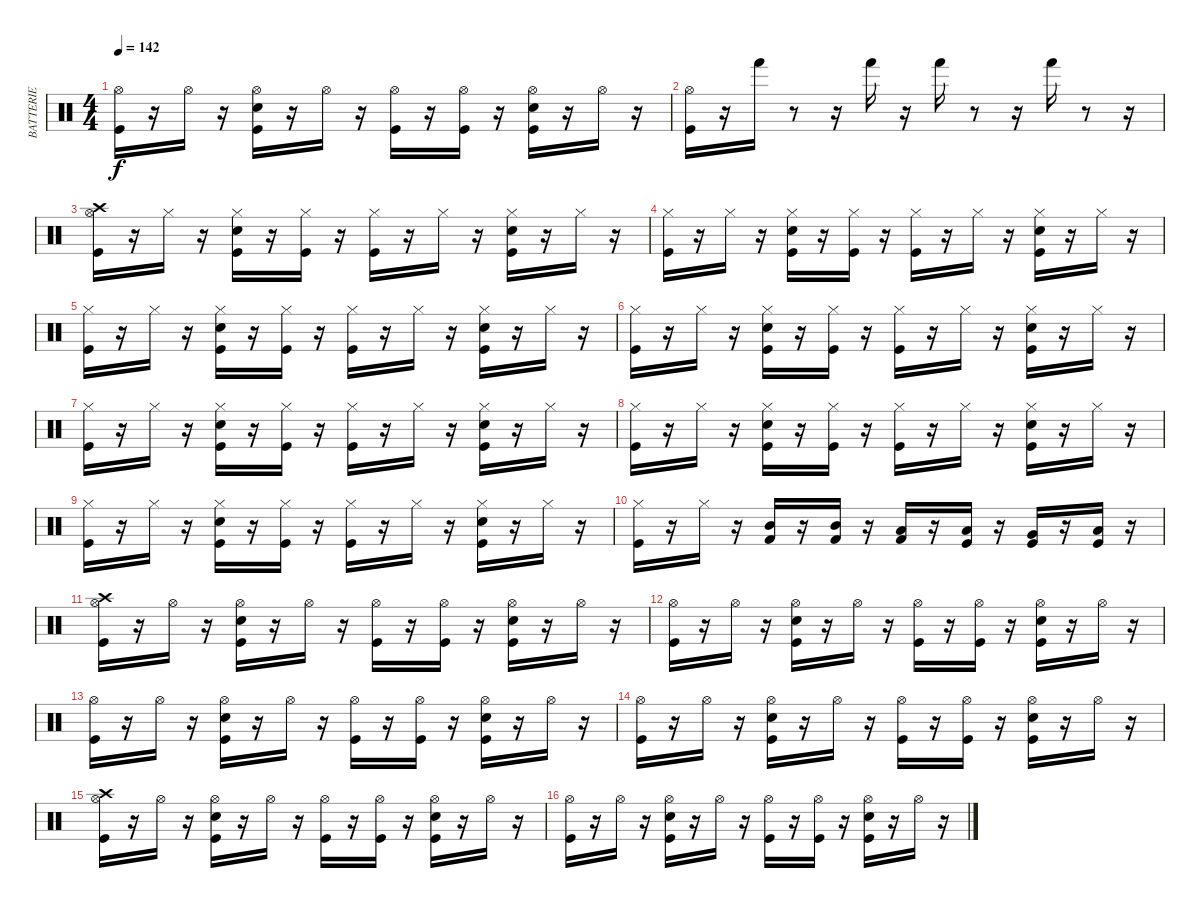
\track ("BATTERIE" "BATTERIE") {instrument percussion}
\staff {score}
\articulation defaults
\ts (4 4)
\tempo 142
\clef neutral
\ks c
("Kick (hit)" "Hi-Hat (open)").16{dy f} r.16 "Hi-Hat (open)".16 r.16 ("Snare (hit) 2" "Kick (hit)" "Hi-Hat (open)").16 r.16 "Hi-Hat (open)".16 r.16 ("Kick (hit)" "Hi-Hat (open)").16 r.16 ("Kick (hit)" "Hi-Hat (open)").16 r.16 ("Kick (hit)" "Snare (hit) 2" "Hi-Hat (open)").16 r.16 "Hi-Hat (open)".16 r.16 |
("Kick (hit)" "Hi-Hat (open)").16 r.16 "Hand (hit)".16 r.8 r.16 "Hand (hit)".16 r.16 "Hand (hit)".16 r.8 r.16 "Hand (hit)".16 r.8 r.16 |
("Crash high (hit)" "Hi-Hat (open)" "Kick (hit)").16 r.16 "Hi-Hat (closed)".16 r.16 ("Snare (hit) 2" "Kick (hit)" "Hi-Hat (closed)").16 r.16 ("Kick (hit)" "Hi-Hat (closed)").16 r.16 ("Kick (hit)" "Hi-Hat (closed)").16 r.16 "Hi-Hat (closed)".16 r.16 ("Snare (hit) 2" "Kick (hit)" "Hi-Hat (closed)").16 r.16 "Hi-Hat (closed)".16 r.16 |
("Kick (hit)" "Hi-Hat (closed)").16 r.16 "Hi-Hat (closed)".16 r.16 ("Snare (hit) 2" "Kick (hit)" "Hi-Hat (closed)").16 r.16 ("Kick (hit)" "Hi-Hat (closed)").16 r.16 ("Kick (hit)" "Hi-Hat (closed)").16 r.16 "Hi-Hat (closed)".16 r.16 ("Snare (hit) 2" "Kick (hit)" "Hi-Hat (closed)").16 r.16 "Hi-Hat (closed)".16 r.16 |
("Hi-Hat (closed)" "Kick (hit)").16 r.16 "Hi-Hat (closed)".16 r.16 ("Snare (hit) 2" "Kick (hit)" "Hi-Hat (closed)").16 r.16 ("Kick (hit)" "Hi-Hat (closed)").16 r.16 ("Kick (hit)" "Hi-Hat (closed)").16 r.16 "Hi-Hat (closed)".16 r.16 ("Snare (hit) 2" "Kick (hit)" "Hi-Hat (closed)").16 r.16 "Hi-Hat (closed)".16 r.16 |
("Hi-Hat (closed)" "Kick (hit)").16 r.16 "Hi-Hat (closed)".16 r.16 ("Snare (hit) 2" "Kick (hit)" "Hi-Hat (closed)").16 r.16 ("Kick (hit)" "Hi-Hat (closed)").16 r.16 ("Kick (hit)" "Hi-Hat (closed)").16 r.16 "Hi-Hat (closed)".16 r.16 ("Snare (hit) 2" "Kick (hit)" "Hi-Hat (closed)").16 r.16 "Hi-Hat (closed)".16 r.16 |
("Hi-Hat (closed)" "Kick (hit)").16 r.16 "Hi-Hat (closed)".16 r.16 ("Snare (hit) 2" "Kick (hit)" "Hi-Hat (closed)").16 r.16 ("Kick (hit)" "Hi-Hat (closed)").16 r.16 ("Kick (hit)" "Hi-Hat (closed)").16 r.16 "Hi-Hat (closed)".16 r.16 ("Snare (hit) 2" "Kick (hit)" "Hi-Hat (closed)").16 r.16 "Hi-Hat (closed)".16 r.16 |
("Hi-Hat (closed)" "Kick (hit)").16 r.16 "Hi-Hat (closed)".16 r.16 ("Snare (hit) 2" "Kick (hit)" "Hi-Hat (closed)").16 r.16 ("Kick (hit)" "Hi-Hat (closed)").16 r.16 ("Kick (hit)" "Hi-Hat (closed)").16 r.16 "Hi-Hat (closed)".16 r.16 ("Snare (hit) 2" "Kick (hit)" "Hi-Hat (closed)").16 r.16 "Hi-Hat (closed)".16 r.16 |
("Hi-Hat (closed)" "Kick (hit)").16 r.16 "Hi-Hat (closed)".16 r.16 ("Snare (hit) 2" "Kick (hit)" "Hi-Hat (closed)").16 r.16 ("Kick (hit)" "Hi-Hat (closed)").16 r.16 ("Kick (hit)" "Hi-Hat (closed)").16 r.16 "Hi-Hat (closed)".16 r.16 ("Snare (hit) 2" "Kick (hit)" "Hi-Hat (closed)").16 r.16 "Hi-Hat (closed)".16 r.16 |
("Hi-Hat (closed)" "Kick (hit)").16 r.16 "Hi-Hat (closed)".16 r.16 ("Kick (hit) 2" "Mid Tom (hit)").16 r.16 ("Kick (hit) 2" "Mid Tom (hit)").16 r.16 ("Kick (hit) 2" "Low Tom (hit)").16 r.16 ("Kick (hit)" "Low Tom (hit)").16 r.16 ("Kick (hit)" "Very Low Tom (hit)").16 r.16 ("Kick (hit)" "Low Floor Tom (hit)").16 r.16 |
("Crash high (hit)" "Hi-Hat (open)" "Kick (hit)").16 r.16 "Hi-Hat (open)".16 r.16 ("Snare (hit) 2" "Kick (hit)" "Hi-Hat (open)").16 r.16 "Hi-Hat (open)".16 r.16 ("Kick (hit)" "Hi-Hat (open)").16 r.16 ("Kick (hit)" "Hi-Hat (open)").16 r.16 ("Kick (hit)" "Snare (hit) 2" "Hi-Hat (open)").16 r.16 "Hi-Hat (open)".16 r.16 |
("Kick (hit)" "Hi-Hat (open)").16 r.16 "Hi-Hat (open)".16 r.16 ("Snare (hit) 2" "Kick (hit)" "Hi-Hat (open)").16 r.16 "Hi-Hat (open)".16 r.16 ("Kick (hit)" "Hi-Hat (open)").16 r.16 ("Kick (hit)" "Hi-Hat (open)").16 r.16 ("Kick (hit)" "Snare (hit) 2" "Hi-Hat (open)").16 r.16 "Hi-Hat (open)".16 r.16 |
("Hi-Hat (open)" "Kick (hit)").16 r.16 "Hi-Hat (open)".16 r.16 ("Snare (hit) 2" "Kick (hit)" "Hi-Hat (open)").16 r.16 "Hi-Hat (open)".16 r.16 ("Kick (hit)" "Hi-Hat (open)").16 r.16 ("Kick (hit)" "Hi-Hat (open)").16 r.16 ("Kick (hit)" "Snare (hit) 2" "Hi-Hat (open)").16 r.16 "Hi-Hat (open)".16 r.16 |
("Hi-Hat (open)" "Kick (hit)").16 r.16 "Hi-Hat (open)".16 r.16 ("Snare (hit) 2" "Kick (hit)" "Hi-Hat (open)").16 r.16 "Hi-Hat (open)".16 r.16 ("Kick (hit)" "Hi-Hat (open)").16 r.16 ("Kick (hit)" "Hi-Hat (open)").16 r.16 ("Kick (hit)" "Snare (hit) 2" "Hi-Hat (open)").16 r.16 "Hi-Hat (open)".16 r.16 |
("Hi-Hat (open)" "Kick (hit)" "Crash high (hit)").16 r.16 "Hi-Hat (open)".16 r.16 ("Snare (hit) 2" "Kick (hit)" "Hi-Hat (open)").16 r.16 "Hi-Hat (open)".16 r.16 ("Kick (hit)" "Hi-Hat (open)").16 r.16 ("Kick (hit)" "Hi-Hat (open)").16 r.16 ("Kick (hit)" "Snare (hit) 2" "Hi-Hat (open)").16 r.16 "Hi-Hat (open)".16 r.16 |
("Hi-Hat (open)" "Kick (hit)").16 r.16 "Hi-Hat (open)".16 r.16 ("Snare (hit) 2" "Kick (hit)" "Hi-Hat (open)").16 r.16 "Hi-Hat (open)".16 r.16 ("Kick (hit)" "Hi-Hat (open)").16 r.16 ("Kick (hit)" "Hi-Hat (open)").16 r.16 ("Kick (hit)" "Snare (hit) 2" "Hi-Hat (open)").16 r.16 "Hi-Hat (open)".16 r.16
